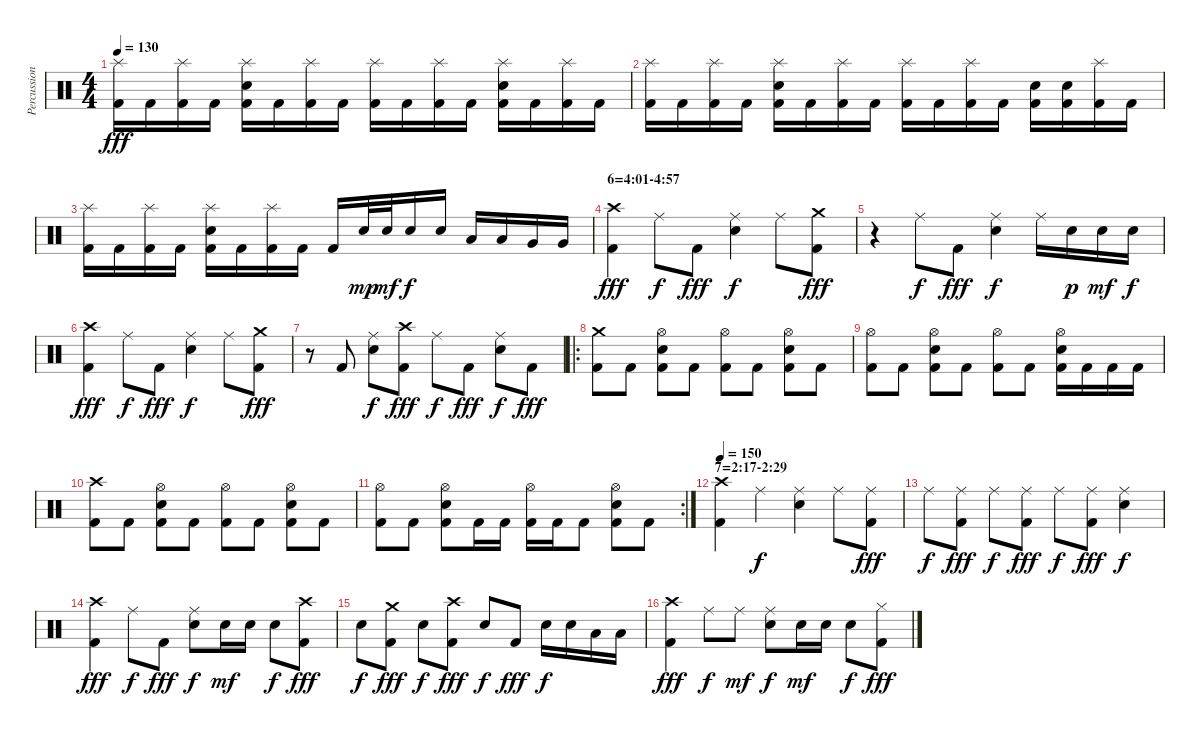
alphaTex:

\track ("Percussion" "Percussion") {instrument percussion}
\staff {score}
\articulation defaults
\ts (4 4)
\tempo 130
\clef neutral
\ks c
("Splash (hit)" "Kick (hit) 2").16{dy fff} "Kick (hit) 2".16 ("Splash (hit)" "Kick (hit) 2").16 "Kick (hit) 2".16 ("Splash (hit)" "Snare (hit) 2" "Kick (hit) 2").16 "Kick (hit) 2".16 ("Splash (hit)" "Kick (hit) 2").16 "Kick (hit) 2".16 ("Splash (hit)" "Kick (hit) 2").16 "Kick (hit) 2".16 ("Splash (hit)" "Kick (hit) 2").16 "Kick (hit) 2".16 ("Splash (hit)" "Snare (hit) 2" "Kick (hit) 2").16 "Kick (hit) 2".16 ("Splash (hit)" "Kick (hit) 2").16 "Kick (hit) 2".16 |
("Splash (hit)" "Kick (hit) 2").16 "Kick (hit) 2".16 ("Splash (hit)" "Kick (hit) 2").16 "Kick (hit) 2".16 ("Splash (hit)" "Snare (hit) 2" "Kick (hit) 2").16 "Kick (hit) 2".16 ("Splash (hit)" "Kick (hit) 2").16 "Kick (hit) 2".16 ("Splash (hit)" "Kick (hit) 2").16 "Kick (hit) 2".16 ("Splash (hit)" "Kick (hit) 2").16 "Kick (hit) 2".16 ("Snare (hit) 2" "Kick (hit) 2").16 ("Snare (hit) 2" "Kick (hit) 2").16 ("Splash (hit)" "Kick (hit) 2").16 "Kick (hit) 2".16 |
("Splash (hit)" "Kick (hit) 2").16 "Kick (hit) 2".16 ("Splash (hit)" "Kick (hit) 2").16 "Kick (hit) 2".16 ("Splash (hit)" "Snare (hit) 2" "Kick (hit) 2").16 "Kick (hit) 2".16 ("Splash (hit)" "Kick (hit) 2").16 "Kick (hit) 2".16 "Kick (hit) 2".16 "Snare (hit) 2".32{dy mp} "Snare (hit) 2".32{dy mf} "Snare (hit) 2".16{dy f} "Snare (hit) 2".16 "Low Tom (hit)".16 "Low Tom (hit)".16 "Very Low Tom (hit)".16 "Very Low Tom (hit)".16 |
\section ("" "6=4:01-4:57")
("Crash high (hit)" "Kick (hit) 2").4{dy fff} "Ride (middle)".8{dy f} "Kick (hit) 2".8{dy fff} ("Ride (middle)" "Snare (hit) 2").4{dy f} "Ride (middle)".8 ("Crash medium (hit)" "Kick (hit) 2").8{dy fff} |
r.4 "Ride (middle)".8{dy f} "Kick (hit) 2".8{dy fff} ("Ride (middle)" "Snare (hit) 2").4{dy f} "Ride (middle)".16 "Snare (hit) 2".16{dy p} "Snare (hit) 2".16{dy mf} "Snare (hit) 2".16{dy f} |
("Crash high (hit)" "Kick (hit) 2").4{dy fff} "Ride (middle)".8{dy f} "Kick (hit) 2".8{dy fff} ("Ride (middle)" "Snare (hit) 2").4{dy f} "Ride (middle)".8 ("Crash medium (hit)" "Kick (hit) 2").8{dy fff} |
r.8 "Kick (hit) 2".8 ("Ride (middle)" "Snare (hit) 2").8{dy f} ("Crash high (hit)" "Kick (hit) 2").8{dy fff} "Ride (middle)".8{dy f} "Kick (hit) 2".8{dy fff} ("Ride (middle)" "Snare (hit) 2").8{dy f} "Kick (hit) 2".8{dy fff} |
\ro
("Crash medium (hit)" "Kick (hit) 2").8 "Kick (hit) 2".8 ("Hi-Hat (open)" "Snare (hit) 2" "Kick (hit) 2").8 "Kick (hit) 2".8 ("Hi-Hat (open)" "Kick (hit) 2").8 "Kick (hit) 2".8 ("Hi-Hat (open)" "Snare (hit) 2" "Kick (hit) 2").8 "Kick (hit) 2".8 |
("Hi-Hat (open)" "Kick (hit) 2").8 "Kick (hit) 2".8 ("Hi-Hat (open)" "Snare (hit) 2" "Kick (hit) 2").8 "Kick (hit) 2".8 ("Hi-Hat (open)" "Kick (hit) 2").8 "Kick (hit) 2".8 ("Hi-Hat (open)" "Snare (hit) 2" "Kick (hit) 2").16 "Kick (hit) 2".16 "Kick (hit) 2".16 "Kick (hit) 2".16 |
("Crash high (hit)" "Kick (hit) 2").8 "Kick (hit) 2".8 ("Hi-Hat (open)" "Snare (hit) 2" "Kick (hit) 2").8 "Kick (hit) 2".8 ("Hi-Hat (open)" "Kick (hit) 2").8 "Kick (hit) 2".8 ("Hi-Hat (open)" "Snare (hit) 2" "Kick (hit) 2").8 "Kick (hit) 2".8 |
\rc 2
("Hi-Hat (open)" "Kick (hit) 2").8 "Kick (hit) 2".8 ("Hi-Hat (open)" "Snare (hit) 2" "Kick (hit) 2").8 "Kick (hit) 2".16 "Kick (hit) 2".16 ("Hi-Hat (open)" "Kick (hit) 2").16 "Kick (hit) 2".16 "Kick (hit) 2".8 ("Hi-Hat (open)" "Snare (hit) 2" "Kick (hit) 2").8 "Kick (hit) 2".8 |
\section ("" "7=2:17-2:29")
\tempo 150
("Crash high (hit)" "Kick (hit) 2").4 "Ride (middle)".4{dy f} ("Ride (middle)" "Snare (hit) 2").4 "Ride (middle)".8 ("Ride (middle)" "Kick (hit) 2").8{dy fff} |
"Ride (middle)".8{dy f} ("Ride (middle)" "Kick (hit) 2").8{dy fff} "Ride (middle)".8{dy f} ("Ride (middle)" "Kick (hit) 2").8{dy fff} "Ride (middle)".8{dy f} ("Ride (middle)" "Kick (hit) 2").8{dy fff} ("Ride (middle)" "Snare (hit) 2").4{dy f} |
("Crash high (hit)" "Kick (hit) 2").4{dy fff} "Ride (middle)".8{dy f} "Kick (hit) 2".8{dy fff} ("Ride (middle)" "Snare (hit) 2").8{dy f} "Snare (hit) 2".16{dy mf} "Snare (hit) 2".16 "Snare (hit) 2".8{dy f} ("Crash high (hit)" "Kick (hit) 2").8{dy fff} |
"Snare (hit) 2".8{dy f} ("Crash medium (hit)" "Kick (hit) 2").8{dy fff} "Snare (hit) 2".8{dy f} ("Crash high (hit)" "Kick (hit) 2").8{dy fff} "Snare (hit) 2".8{dy f} "Kick (hit) 2".8{dy fff} "Snare (hit) 2".16{dy f} "Snare (hit) 2".16 "Low Tom (hit)".16 "Low Tom (hit)".16 |
("Crash high (hit)" "Kick (hit) 2").4{dy fff} "Ride (middle)".8{dy f} "Ride (middle)".8{dy mf} ("Ride (middle)" "Snare (hit) 2").8{dy f} "Snare (hit) 2".16{dy mf} "Snare (hit) 2".16 "Snare (hit) 2".8{dy f} ("Hi-Hat (closed)" "Kick (hit) 2").8{dy fff}
